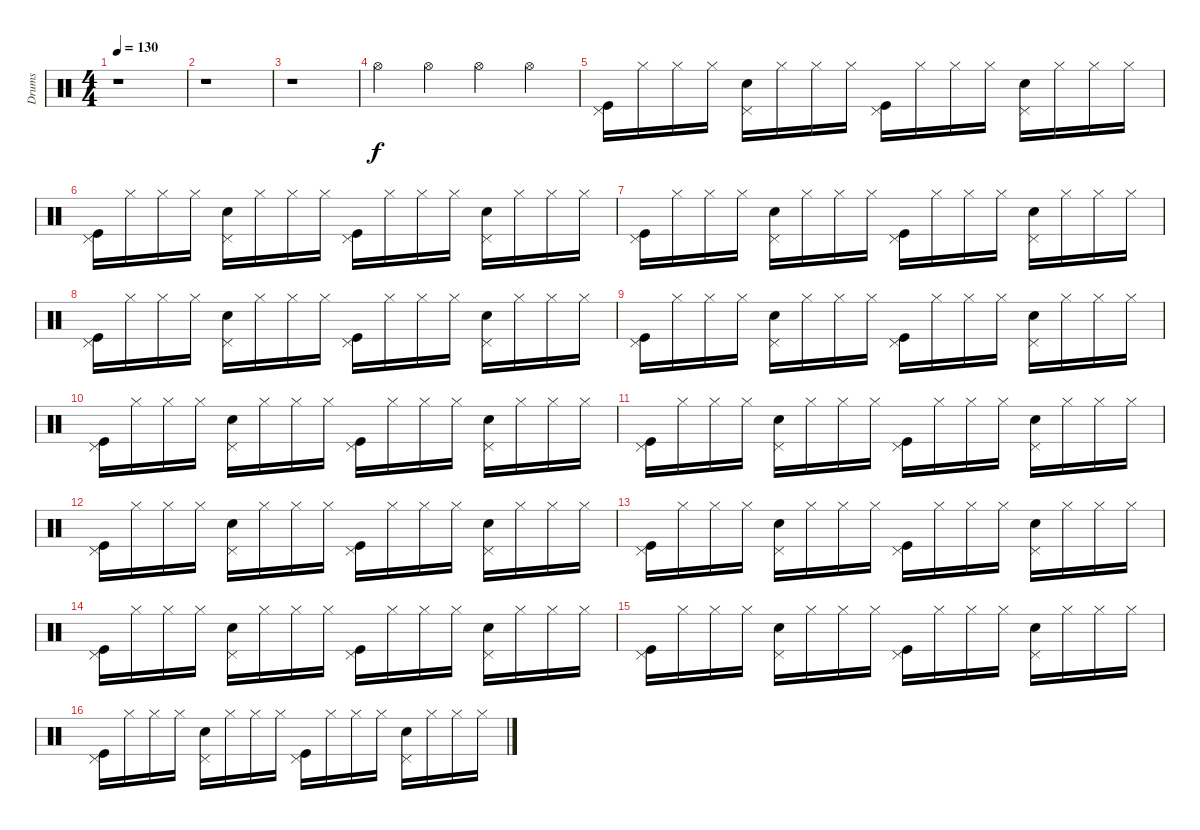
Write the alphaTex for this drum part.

\track ("Drums" "Drums") {instrument percussion}
\staff {score}
\articulation defaults
\ts (4 4)
\tempo 130
\clef neutral
\ks c
r.1{dy f} |
r.1 |
r.1 |
"Hi-Hat (open)".4 "Hi-Hat (open)".4 "Hi-Hat (open)".4 "Hi-Hat (open)".4 |
("Pedal Hi-Hat (hit)" "Kick (hit)").16 "Hi-Hat (closed)".16 "Hi-Hat (closed)".16 "Hi-Hat (closed)".16 ("Pedal Hi-Hat (hit)" "Snare (hit) 2").16 "Hi-Hat (closed)".16 "Hi-Hat (closed)".16 "Hi-Hat (closed)".16 ("Pedal Hi-Hat (hit)" "Kick (hit)").16 "Hi-Hat (closed)".16 "Hi-Hat (closed)".16 "Hi-Hat (closed)".16 ("Pedal Hi-Hat (hit)" "Snare (hit) 2").16 "Hi-Hat (closed)".16 "Hi-Hat (closed)".16 "Hi-Hat (closed)".16 |
("Pedal Hi-Hat (hit)" "Kick (hit)").16 "Hi-Hat (closed)".16 "Hi-Hat (closed)".16 "Hi-Hat (closed)".16 ("Pedal Hi-Hat (hit)" "Snare (hit) 2").16 "Hi-Hat (closed)".16 "Hi-Hat (closed)".16 "Hi-Hat (closed)".16 ("Pedal Hi-Hat (hit)" "Kick (hit)").16 "Hi-Hat (closed)".16 "Hi-Hat (closed)".16 "Hi-Hat (closed)".16 ("Pedal Hi-Hat (hit)" "Snare (hit) 2").16 "Hi-Hat (closed)".16 "Hi-Hat (closed)".16 "Hi-Hat (closed)".16 |
("Pedal Hi-Hat (hit)" "Kick (hit)").16 "Hi-Hat (closed)".16 "Hi-Hat (closed)".16 "Hi-Hat (closed)".16 ("Pedal Hi-Hat (hit)" "Snare (hit) 2").16 "Hi-Hat (closed)".16 "Hi-Hat (closed)".16 "Hi-Hat (closed)".16 ("Pedal Hi-Hat (hit)" "Kick (hit)").16 "Hi-Hat (closed)".16 "Hi-Hat (closed)".16 "Hi-Hat (closed)".16 ("Pedal Hi-Hat (hit)" "Snare (hit) 2").16 "Hi-Hat (closed)".16 "Hi-Hat (closed)".16 "Hi-Hat (closed)".16 |
("Pedal Hi-Hat (hit)" "Kick (hit)").16 "Hi-Hat (closed)".16 "Hi-Hat (closed)".16 "Hi-Hat (closed)".16 ("Pedal Hi-Hat (hit)" "Snare (hit) 2").16 "Hi-Hat (closed)".16 "Hi-Hat (closed)".16 "Hi-Hat (closed)".16 ("Pedal Hi-Hat (hit)" "Kick (hit)").16 "Hi-Hat (closed)".16 "Hi-Hat (closed)".16 "Hi-Hat (closed)".16 ("Pedal Hi-Hat (hit)" "Snare (hit) 2").16 "Hi-Hat (closed)".16 "Hi-Hat (closed)".16 "Hi-Hat (closed)".16 |
("Pedal Hi-Hat (hit)" "Kick (hit)").16 "Hi-Hat (closed)".16 "Hi-Hat (closed)".16 "Hi-Hat (closed)".16 ("Pedal Hi-Hat (hit)" "Snare (hit) 2").16 "Hi-Hat (closed)".16 "Hi-Hat (closed)".16 "Hi-Hat (closed)".16 ("Pedal Hi-Hat (hit)" "Kick (hit)").16 "Hi-Hat (closed)".16 "Hi-Hat (closed)".16 "Hi-Hat (closed)".16 ("Pedal Hi-Hat (hit)" "Snare (hit) 2").16 "Hi-Hat (closed)".16 "Hi-Hat (closed)".16 "Hi-Hat (closed)".16 |
("Pedal Hi-Hat (hit)" "Kick (hit)").16 "Hi-Hat (closed)".16 "Hi-Hat (closed)".16 "Hi-Hat (closed)".16 ("Pedal Hi-Hat (hit)" "Snare (hit) 2").16 "Hi-Hat (closed)".16 "Hi-Hat (closed)".16 "Hi-Hat (closed)".16 ("Pedal Hi-Hat (hit)" "Kick (hit)").16 "Hi-Hat (closed)".16 "Hi-Hat (closed)".16 "Hi-Hat (closed)".16 ("Pedal Hi-Hat (hit)" "Snare (hit) 2").16 "Hi-Hat (closed)".16 "Hi-Hat (closed)".16 "Hi-Hat (closed)".16 |
("Pedal Hi-Hat (hit)" "Kick (hit)").16 "Hi-Hat (closed)".16 "Hi-Hat (closed)".16 "Hi-Hat (closed)".16 ("Pedal Hi-Hat (hit)" "Snare (hit) 2").16 "Hi-Hat (closed)".16 "Hi-Hat (closed)".16 "Hi-Hat (closed)".16 ("Pedal Hi-Hat (hit)" "Kick (hit)").16 "Hi-Hat (closed)".16 "Hi-Hat (closed)".16 "Hi-Hat (closed)".16 ("Pedal Hi-Hat (hit)" "Snare (hit) 2").16 "Hi-Hat (closed)".16 "Hi-Hat (closed)".16 "Hi-Hat (closed)".16 |
("Pedal Hi-Hat (hit)" "Kick (hit)").16 "Hi-Hat (closed)".16 "Hi-Hat (closed)".16 "Hi-Hat (closed)".16 ("Pedal Hi-Hat (hit)" "Snare (hit) 2").16 "Hi-Hat (closed)".16 "Hi-Hat (closed)".16 "Hi-Hat (closed)".16 ("Pedal Hi-Hat (hit)" "Kick (hit)").16 "Hi-Hat (closed)".16 "Hi-Hat (closed)".16 "Hi-Hat (closed)".16 ("Pedal Hi-Hat (hit)" "Snare (hit) 2").16 "Hi-Hat (closed)".16 "Hi-Hat (closed)".16 "Hi-Hat (closed)".16 |
("Pedal Hi-Hat (hit)" "Kick (hit)").16 "Hi-Hat (closed)".16 "Hi-Hat (closed)".16 "Hi-Hat (closed)".16 ("Pedal Hi-Hat (hit)" "Snare (hit) 2").16 "Hi-Hat (closed)".16 "Hi-Hat (closed)".16 "Hi-Hat (closed)".16 ("Pedal Hi-Hat (hit)" "Kick (hit)").16 "Hi-Hat (closed)".16 "Hi-Hat (closed)".16 "Hi-Hat (closed)".16 ("Pedal Hi-Hat (hit)" "Snare (hit) 2").16 "Hi-Hat (closed)".16 "Hi-Hat (closed)".16 "Hi-Hat (closed)".16 |
("Pedal Hi-Hat (hit)" "Kick (hit)").16 "Hi-Hat (closed)".16 "Hi-Hat (closed)".16 "Hi-Hat (closed)".16 ("Pedal Hi-Hat (hit)" "Snare (hit) 2").16 "Hi-Hat (closed)".16 "Hi-Hat (closed)".16 "Hi-Hat (closed)".16 ("Pedal Hi-Hat (hit)" "Kick (hit)").16 "Hi-Hat (closed)".16 "Hi-Hat (closed)".16 "Hi-Hat (closed)".16 ("Pedal Hi-Hat (hit)" "Snare (hit) 2").16 "Hi-Hat (closed)".16 "Hi-Hat (closed)".16 "Hi-Hat (closed)".16 |
("Pedal Hi-Hat (hit)" "Kick (hit)").16 "Hi-Hat (closed)".16 "Hi-Hat (closed)".16 "Hi-Hat (closed)".16 ("Pedal Hi-Hat (hit)" "Snare (hit) 2").16 "Hi-Hat (closed)".16 "Hi-Hat (closed)".16 "Hi-Hat (closed)".16 ("Pedal Hi-Hat (hit)" "Kick (hit)").16 "Hi-Hat (closed)".16 "Hi-Hat (closed)".16 "Hi-Hat (closed)".16 ("Pedal Hi-Hat (hit)" "Snare (hit) 2").16 "Hi-Hat (closed)".16 "Hi-Hat (closed)".16 "Hi-Hat (closed)".16 |
("Pedal Hi-Hat (hit)" "Kick (hit)").16 "Hi-Hat (closed)".16 "Hi-Hat (closed)".16 "Hi-Hat (closed)".16 ("Pedal Hi-Hat (hit)" "Snare (hit) 2").16 "Hi-Hat (closed)".16 "Hi-Hat (closed)".16 "Hi-Hat (closed)".16 ("Pedal Hi-Hat (hit)" "Kick (hit)").16 "Hi-Hat (closed)".16 "Hi-Hat (closed)".16 "Hi-Hat (closed)".16 ("Pedal Hi-Hat (hit)" "Snare (hit) 2").16 "Hi-Hat (closed)".16 "Hi-Hat (closed)".16 "Hi-Hat (closed)".16
